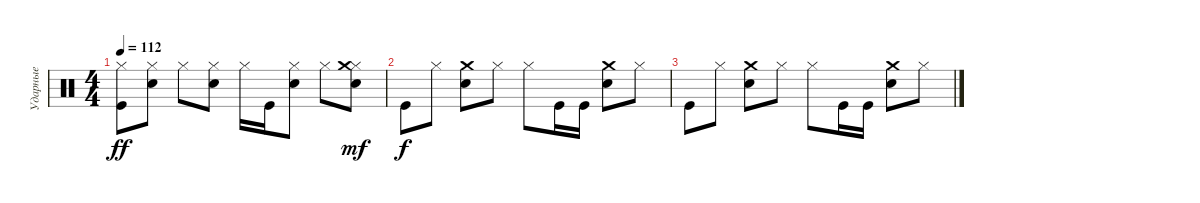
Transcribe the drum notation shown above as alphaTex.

\track ("Ударные" "Ударные") {instrument percussion}
\staff {score}
\articulation defaults
\ts (4 4)
\tempo 112
\clef neutral
\ks c
("Hi-Hat (closed)" "Kick (hit)").8{dy ff} ("Hi-Hat (closed)" "Snare (hit) 2").8 "Hi-Hat (closed)".8 ("Hi-Hat (closed)" "Snare (hit) 2").8 "Hi-Hat (closed)".16 "Kick (hit)".16 ("Hi-Hat (closed)" "Snare (hit) 2").8 "Hi-Hat (closed)".8 ("Hi-Hat (closed)" "Snare (hit) 2" "Crash medium (hit)").8{dy mf} |
"Kick (hit)".8{dy f} "Hi-Hat (closed)".8 ("Crash medium (hit)" "Snare (hit) 2").8 "Hi-Hat (closed)".8 "Hi-Hat (closed)".8 "Kick (hit)".16 "Kick (hit)".16 ("Crash medium (hit)" "Snare (hit) 2").8 "Hi-Hat (closed)".8 |
"Kick (hit)".8 "Hi-Hat (closed)".8 ("Crash medium (hit)" "Snare (hit) 2").8 "Hi-Hat (closed)".8 "Hi-Hat (closed)".8 "Kick (hit)".16 "Kick (hit)".16 ("Crash medium (hit)" "Snare (hit) 2").8 "Hi-Hat (closed)".8
